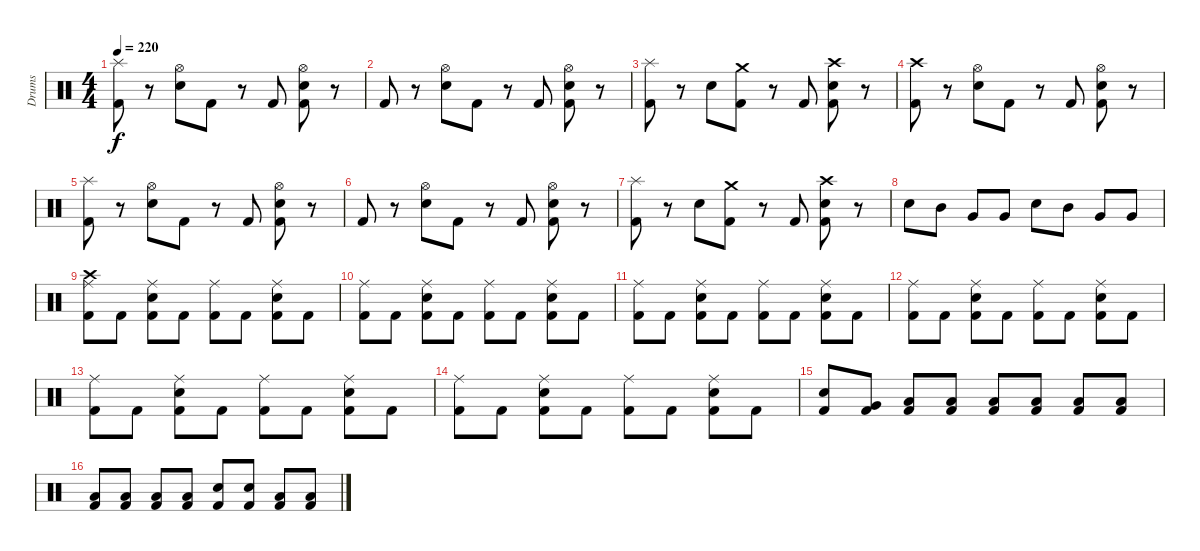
\track ("Drums" "Drums") {instrument percussion}
\staff {score}
\articulation defaults
\ts (4 4)
\tempo 220
\clef neutral
\ks c
("Splash (hit)" "Kick (hit) 2").8{dy f} r.8 ("Electric Snare (hit)" "Hi-Hat (open)").8 "Kick (hit) 2".8 r.8 "Kick (hit) 2".8 ("Electric Snare (hit)" "Hi-Hat (open)" "Kick (hit) 2").8 r.8 |
"Kick (hit) 2".8 r.8 ("Electric Snare (hit)" "Hi-Hat (open)").8 "Kick (hit) 2".8 r.8 "Kick (hit) 2".8 ("Electric Snare (hit)" "Hi-Hat (open)" "Kick (hit) 2").8 r.8 |
("Splash (hit)" "Kick (hit) 2").8 r.8 "Electric Snare (hit)".8 ("Crash medium (hit)" "Kick (hit) 2").8 r.8 "Kick (hit) 2".8 ("Electric Snare (hit)" "Crash high (hit)" "Kick (hit) 2").8 r.8 |
("Crash high (hit)" "Kick (hit) 2").8 r.8 ("Electric Snare (hit)" "Hi-Hat (open)").8 "Kick (hit) 2".8 r.8 "Kick (hit) 2".8 ("Electric Snare (hit)" "Hi-Hat (open)" "Kick (hit) 2").8 r.8 |
("Splash (hit)" "Kick (hit) 2").8 r.8 ("Electric Snare (hit)" "Hi-Hat (open)").8 "Kick (hit) 2".8 r.8 "Kick (hit) 2".8 ("Electric Snare (hit)" "Hi-Hat (open)" "Kick (hit) 2").8 r.8 |
"Kick (hit) 2".8 r.8 ("Electric Snare (hit)" "Hi-Hat (open)").8 "Kick (hit) 2".8 r.8 "Kick (hit) 2".8 ("Electric Snare (hit)" "Hi-Hat (open)" "Kick (hit) 2").8 r.8 |
("Splash (hit)" "Kick (hit) 2").8 r.8 "Electric Snare (hit)".8 ("Crash medium (hit)" "Kick (hit) 2").8 r.8 "Kick (hit) 2".8 ("Electric Snare (hit)" "Crash high (hit)" "Kick (hit) 2").8 r.8 |
"Electric Snare (hit)".8 "Mid Tom (hit)".8 "Very Low Tom (hit)".8 "Very Low Tom (hit)".8 "Electric Snare (hit)".8 "Mid Tom (hit)".8 "Very Low Tom (hit)".8 "Very Low Tom (hit)".8 |
("Crash high (hit)" "Ride (middle)" "Kick (hit) 2").8 "Kick (hit) 2".8 ("Electric Snare (hit)" "Ride (middle)" "Kick (hit) 2").8 "Kick (hit) 2".8 ("Ride (middle)" "Kick (hit) 2").8 "Kick (hit) 2".8 ("Electric Snare (hit)" "Ride (middle)" "Kick (hit) 2").8 "Kick (hit) 2".8 |
("Ride (middle)" "Kick (hit) 2").8 "Kick (hit) 2".8 ("Electric Snare (hit)" "Ride (middle)" "Kick (hit) 2").8 "Kick (hit) 2".8 ("Ride (middle)" "Kick (hit) 2").8 "Kick (hit) 2".8 ("Electric Snare (hit)" "Ride (middle)" "Kick (hit) 2").8 "Kick (hit) 2".8 |
("Ride (middle)" "Kick (hit) 2").8 "Kick (hit) 2".8 ("Electric Snare (hit)" "Ride (middle)" "Kick (hit) 2").8 "Kick (hit) 2".8 ("Ride (middle)" "Kick (hit) 2").8 "Kick (hit) 2".8 ("Electric Snare (hit)" "Ride (middle)" "Kick (hit) 2").8 "Kick (hit) 2".8 |
("Ride (middle)" "Kick (hit) 2").8 "Kick (hit) 2".8 ("Electric Snare (hit)" "Ride (middle)" "Kick (hit) 2").8 "Kick (hit) 2".8 ("Ride (middle)" "Kick (hit) 2").8 "Kick (hit) 2".8 ("Electric Snare (hit)" "Ride (middle)" "Kick (hit) 2").8 "Kick (hit) 2".8 |
("Ride (middle)" "Kick (hit) 2").8 "Kick (hit) 2".8 ("Electric Snare (hit)" "Ride (middle)" "Kick (hit) 2").8 "Kick (hit) 2".8 ("Ride (middle)" "Kick (hit) 2").8 "Kick (hit) 2".8 ("Electric Snare (hit)" "Ride (middle)" "Kick (hit) 2").8 "Kick (hit) 2".8 |
("Ride (middle)" "Kick (hit) 2").8 "Kick (hit) 2".8 ("Electric Snare (hit)" "Ride (middle)" "Kick (hit) 2").8 "Kick (hit) 2".8 ("Ride (middle)" "Kick (hit) 2").8 "Kick (hit) 2".8 ("Electric Snare (hit)" "Ride (middle)" "Kick (hit) 2").8 "Kick (hit) 2".8 |
("Electric Snare (hit)" "Kick (hit) 2").8 ("Very Low Tom (hit)" "Kick (hit) 2").8 ("Low Floor Tom (hit)" "Kick (hit) 2").8 ("Low Floor Tom (hit)" "Kick (hit) 2").8 ("Low Floor Tom (hit)" "Kick (hit) 2").8 ("Low Floor Tom (hit)" "Kick (hit) 2").8 ("Low Floor Tom (hit)" "Kick (hit) 2").8 ("Low Floor Tom (hit)" "Kick (hit) 2").8 |
("Low Floor Tom (hit)" "Kick (hit) 2").8 ("Low Floor Tom (hit)" "Kick (hit) 2").8 ("Low Floor Tom (hit)" "Kick (hit) 2").8 ("Low Floor Tom (hit)" "Kick (hit) 2").8 ("Electric Snare (hit)" "Kick (hit) 2").8 ("Electric Snare (hit)" "Kick (hit) 2").8 ("Low Floor Tom (hit)" "Kick (hit) 2").8 ("Low Floor Tom (hit)" "Kick (hit) 2").8
